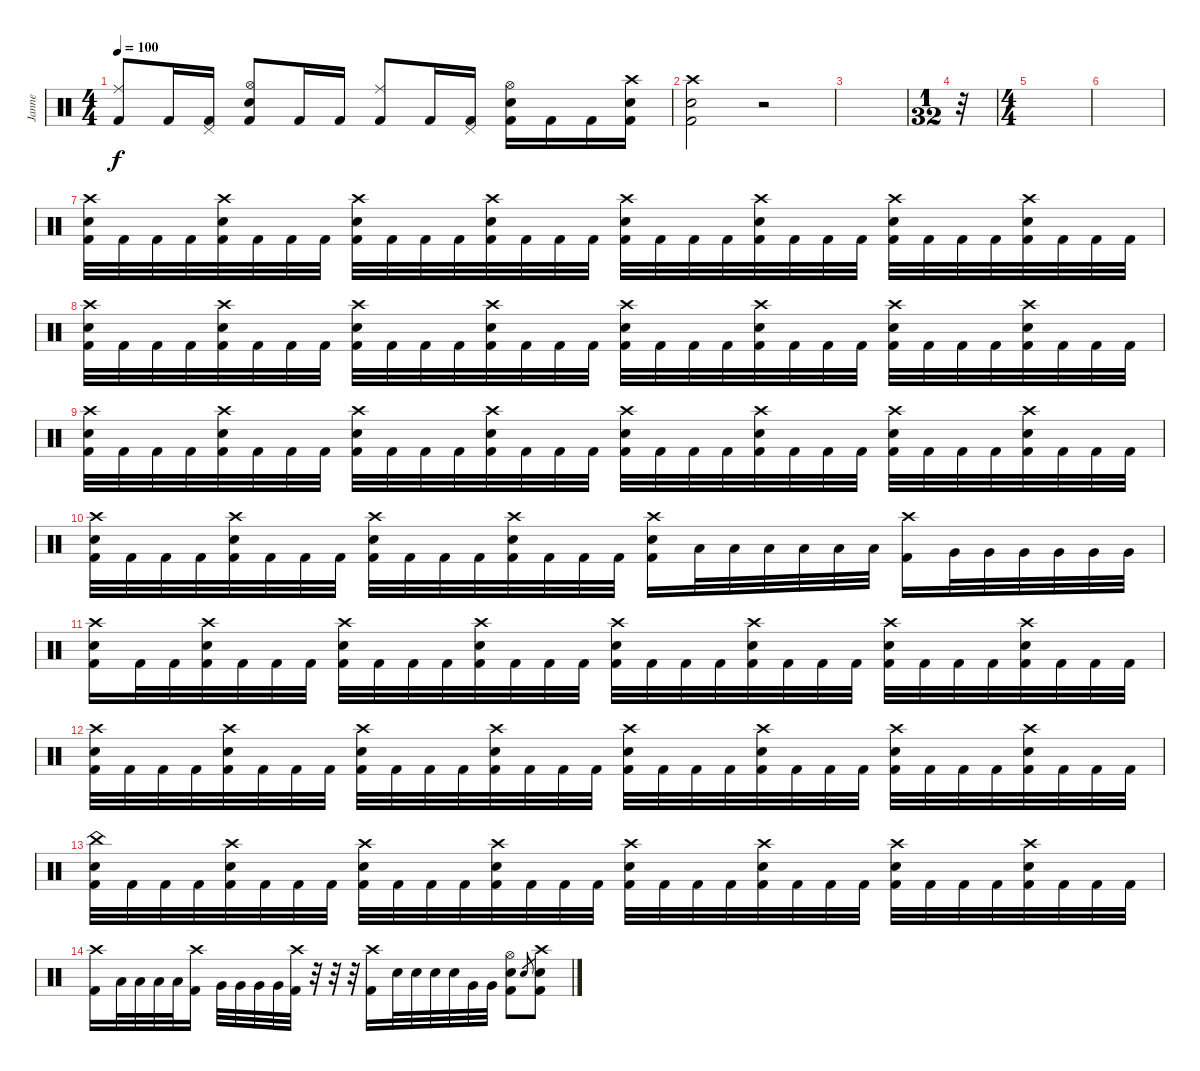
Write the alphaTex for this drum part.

\track ("Janne" "Janne") {instrument percussion}
\staff {score}
\articulation defaults
\ts (4 4)
\tempo 100
\clef neutral
\ks c
("Ride (middle)" "Kick (hit) 2").8{dy f} "Kick (hit) 2".16 ("Pedal Hi-Hat (hit)" "Kick (hit) 2").16 ("Hi-Hat (open)" "Electric Snare (hit)" "Kick (hit) 2").8 "Kick (hit) 2".16 "Kick (hit) 2".16 ("Ride (middle)" "Kick (hit) 2").8 "Kick (hit) 2".16 ("Pedal Hi-Hat (hit)" "Kick (hit) 2").16 ("Hi-Hat (open)" "Electric Snare (hit)" "Kick (hit) 2").16 "Kick (hit) 2".16 "Kick (hit) 2".16 ("Crash high (hit)" "Electric Snare (hit)" "Kick (hit) 2").16 |
("Crash high (hit)" "Electric Snare (hit)" "Kick (hit) 2").2 r.2 |
|
\ts (1 32)
r.32 |
\ts (4 4)
|
|
("Crash high (hit)" "Electric Snare (hit)" "Kick (hit) 2").32 "Kick (hit) 2".32 "Kick (hit) 2".32 "Kick (hit) 2".32 ("Crash high (hit)" "Electric Snare (hit)" "Kick (hit) 2").32 "Kick (hit) 2".32 "Kick (hit) 2".32 "Kick (hit) 2".32 ("Crash high (hit)" "Electric Snare (hit)" "Kick (hit) 2").32 "Kick (hit) 2".32 "Kick (hit) 2".32 "Kick (hit) 2".32 ("Crash high (hit)" "Electric Snare (hit)" "Kick (hit) 2").32 "Kick (hit) 2".32 "Kick (hit) 2".32 "Kick (hit) 2".32 ("Crash high (hit)" "Electric Snare (hit)" "Kick (hit) 2").32 "Kick (hit) 2".32 "Kick (hit) 2".32 "Kick (hit) 2".32 ("Crash high (hit)" "Electric Snare (hit)" "Kick (hit) 2").32 "Kick (hit) 2".32 "Kick (hit) 2".32 "Kick (hit) 2".32 ("Crash high (hit)" "Electric Snare (hit)" "Kick (hit) 2").32 "Kick (hit) 2".32 "Kick (hit) 2".32 "Kick (hit) 2".32 ("Crash high (hit)" "Electric Snare (hit)" "Kick (hit) 2").32 "Kick (hit) 2".32 "Kick (hit) 2".32 "Kick (hit) 2".32 |
("Crash high (hit)" "Electric Snare (hit)" "Kick (hit) 2").32 "Kick (hit) 2".32 "Kick (hit) 2".32 "Kick (hit) 2".32 ("Crash high (hit)" "Electric Snare (hit)" "Kick (hit) 2").32 "Kick (hit) 2".32 "Kick (hit) 2".32 "Kick (hit) 2".32 ("Crash high (hit)" "Electric Snare (hit)" "Kick (hit) 2").32 "Kick (hit) 2".32 "Kick (hit) 2".32 "Kick (hit) 2".32 ("Crash high (hit)" "Electric Snare (hit)" "Kick (hit) 2").32 "Kick (hit) 2".32 "Kick (hit) 2".32 "Kick (hit) 2".32 ("Crash high (hit)" "Electric Snare (hit)" "Kick (hit) 2").32 "Kick (hit) 2".32 "Kick (hit) 2".32 "Kick (hit) 2".32 ("Crash high (hit)" "Electric Snare (hit)" "Kick (hit) 2").32 "Kick (hit) 2".32 "Kick (hit) 2".32 "Kick (hit) 2".32 ("Crash high (hit)" "Electric Snare (hit)" "Kick (hit) 2").32 "Kick (hit) 2".32 "Kick (hit) 2".32 "Kick (hit) 2".32 ("Crash high (hit)" "Electric Snare (hit)" "Kick (hit) 2").32 "Kick (hit) 2".32 "Kick (hit) 2".32 "Kick (hit) 2".32 |
("Crash high (hit)" "Electric Snare (hit)" "Kick (hit) 2").32 "Kick (hit) 2".32 "Kick (hit) 2".32 "Kick (hit) 2".32 ("Crash high (hit)" "Electric Snare (hit)" "Kick (hit) 2").32 "Kick (hit) 2".32 "Kick (hit) 2".32 "Kick (hit) 2".32 ("Crash high (hit)" "Electric Snare (hit)" "Kick (hit) 2").32 "Kick (hit) 2".32 "Kick (hit) 2".32 "Kick (hit) 2".32 ("Crash high (hit)" "Electric Snare (hit)" "Kick (hit) 2").32 "Kick (hit) 2".32 "Kick (hit) 2".32 "Kick (hit) 2".32 ("Crash high (hit)" "Electric Snare (hit)" "Kick (hit) 2").32 "Kick (hit) 2".32 "Kick (hit) 2".32 "Kick (hit) 2".32 ("Crash high (hit)" "Electric Snare (hit)" "Kick (hit) 2").32 "Kick (hit) 2".32 "Kick (hit) 2".32 "Kick (hit) 2".32 ("Crash high (hit)" "Electric Snare (hit)" "Kick (hit) 2").32 "Kick (hit) 2".32 "Kick (hit) 2".32 "Kick (hit) 2".32 ("Crash high (hit)" "Electric Snare (hit)" "Kick (hit) 2").32 "Kick (hit) 2".32 "Kick (hit) 2".32 "Kick (hit) 2".32 |
("Crash high (hit)" "Electric Snare (hit)" "Kick (hit) 2").32 "Kick (hit) 2".32 "Kick (hit) 2".32 "Kick (hit) 2".32 ("Crash high (hit)" "Electric Snare (hit)" "Kick (hit) 2").32 "Kick (hit) 2".32 "Kick (hit) 2".32 "Kick (hit) 2".32 ("Crash high (hit)" "Electric Snare (hit)" "Kick (hit) 2").32 "Kick (hit) 2".32 "Kick (hit) 2".32 "Kick (hit) 2".32 ("Crash high (hit)" "Electric Snare (hit)" "Kick (hit) 2").32 "Kick (hit) 2".32 "Kick (hit) 2".32 "Kick (hit) 2".32 ("Crash high (hit)" "Electric Snare (hit)" "Kick (hit) 2").16 "Low Tom (hit)".32 "Low Tom (hit)".32 "Low Tom (hit)".32 "Low Tom (hit)".32 "Low Tom (hit)".32 "Low Tom (hit)".32 ("Crash high (hit)" "Kick (hit) 2").16 "Very Low Tom (hit)".32 "Very Low Tom (hit)".32 "Very Low Tom (hit)".32 "Very Low Tom (hit)".32 "Very Low Tom (hit)".32 "Very Low Tom (hit)".32 |
("Crash high (hit)" "Electric Snare (hit)" "Kick (hit) 2").16 "Kick (hit) 2".32 "Kick (hit) 2".32 ("Crash high (hit)" "Electric Snare (hit)" "Kick (hit) 2").32 "Kick (hit) 2".32 "Kick (hit) 2".32 "Kick (hit) 2".32 ("Crash high (hit)" "Electric Snare (hit)" "Kick (hit) 2").32 "Kick (hit) 2".32 "Kick (hit) 2".32 "Kick (hit) 2".32 ("Crash high (hit)" "Electric Snare (hit)" "Kick (hit) 2").32 "Kick (hit) 2".32 "Kick (hit) 2".32 "Kick (hit) 2".32 ("Crash high (hit)" "Electric Snare (hit)" "Kick (hit) 2").32 "Kick (hit) 2".32 "Kick (hit) 2".32 "Kick (hit) 2".32 ("Crash high (hit)" "Electric Snare (hit)" "Kick (hit) 2").32 "Kick (hit) 2".32 "Kick (hit) 2".32 "Kick (hit) 2".32 ("Crash high (hit)" "Electric Snare (hit)" "Kick (hit) 2").32 "Kick (hit) 2".32 "Kick (hit) 2".32 "Kick (hit) 2".32 ("Crash high (hit)" "Electric Snare (hit)" "Kick (hit) 2").32 "Kick (hit) 2".32 "Kick (hit) 2".32 "Kick (hit) 2".32 |
("Crash high (hit)" "Electric Snare (hit)" "Kick (hit) 2").32 "Kick (hit) 2".32 "Kick (hit) 2".32 "Kick (hit) 2".32 ("Crash high (hit)" "Electric Snare (hit)" "Kick (hit) 2").32 "Kick (hit) 2".32 "Kick (hit) 2".32 "Kick (hit) 2".32 ("Crash high (hit)" "Electric Snare (hit)" "Kick (hit) 2").32 "Kick (hit) 2".32 "Kick (hit) 2".32 "Kick (hit) 2".32 ("Crash high (hit)" "Electric Snare (hit)" "Kick (hit) 2").32 "Kick (hit) 2".32 "Kick (hit) 2".32 "Kick (hit) 2".32 ("Crash high (hit)" "Electric Snare (hit)" "Kick (hit) 2").32 "Kick (hit) 2".32 "Kick (hit) 2".32 "Kick (hit) 2".32 ("Crash high (hit)" "Electric Snare (hit)" "Kick (hit) 2").32 "Kick (hit) 2".32 "Kick (hit) 2".32 "Kick (hit) 2".32 ("Crash high (hit)" "Electric Snare (hit)" "Kick (hit) 2").32 "Kick (hit) 2".32 "Kick (hit) 2".32 "Kick (hit) 2".32 ("Crash high (hit)" "Electric Snare (hit)" "Kick (hit) 2").32 "Kick (hit) 2".32 "Kick (hit) 2".32 "Kick (hit) 2".32 |
("China (hit)" "Electric Snare (hit)" "Kick (hit) 2").32 "Kick (hit) 2".32 "Kick (hit) 2".32 "Kick (hit) 2".32 ("Crash high (hit)" "Electric Snare (hit)" "Kick (hit) 2").32 "Kick (hit) 2".32 "Kick (hit) 2".32 "Kick (hit) 2".32 ("Crash high (hit)" "Electric Snare (hit)" "Kick (hit) 2").32 "Kick (hit) 2".32 "Kick (hit) 2".32 "Kick (hit) 2".32 ("Crash high (hit)" "Electric Snare (hit)" "Kick (hit) 2").32 "Kick (hit) 2".32 "Kick (hit) 2".32 "Kick (hit) 2".32 ("Crash high (hit)" "Electric Snare (hit)" "Kick (hit) 2").32 "Kick (hit) 2".32 "Kick (hit) 2".32 "Kick (hit) 2".32 ("Crash high (hit)" "Electric Snare (hit)" "Kick (hit) 2").32 "Kick (hit) 2".32 "Kick (hit) 2".32 "Kick (hit) 2".32 ("Crash high (hit)" "Electric Snare (hit)" "Kick (hit) 2").32 "Kick (hit) 2".32 "Kick (hit) 2".32 "Kick (hit) 2".32 ("Crash high (hit)" "Electric Snare (hit)" "Kick (hit) 2").32 "Kick (hit) 2".32 "Kick (hit) 2".32 "Kick (hit) 2".32 |
("Crash high (hit)" "Kick (hit) 2").16 "Low Tom (hit)".32 "Low Tom (hit)".32 "Low Tom (hit)".32 "Low Tom (hit)".32 ("Crash high (hit)" "Kick (hit) 2").16 "Very Low Tom (hit)".32 "Very Low Tom (hit)".32 "Very Low Tom (hit)".32 "Very Low Tom (hit)".32 ("Crash high (hit)" "Kick (hit) 2").32 r.32 r.32 r.32 ("Crash high (hit)" "Kick (hit) 2").16 "Electric Snare (hit)".32 "Electric Snare (hit)".32 "Electric Snare (hit)".32 "Electric Snare (hit)".32 "Very Low Tom (hit)".32 "Very Low Tom (hit)".32 ("Hi-Hat (open)" "Electric Snare (hit)" "Kick (hit) 2").8 "Electric Snare (hit)".8{gr} ("Crash high (hit)" "Electric Snare (hit)" "Kick (hit) 2").8
